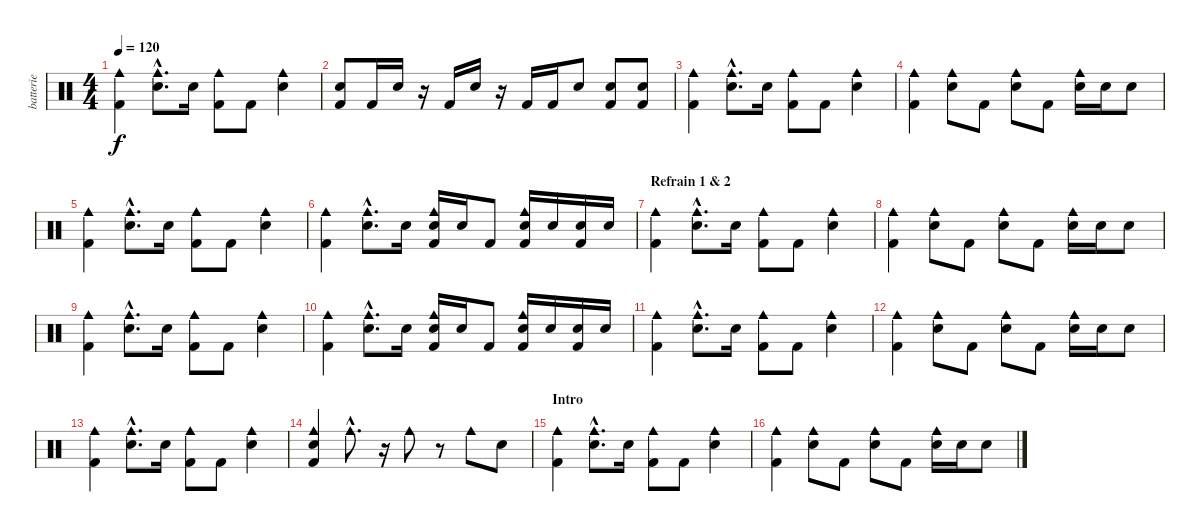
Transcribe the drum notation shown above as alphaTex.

\track ("batterie" "batterie") {instrument percussion}
\staff {score}
\articulation defaults
\ts (4 4)
\tempo 120
\clef neutral
\ks c
("Kick (hit) 2" "Cowbell medium (hit)").4{dy f} ("Electric Snare (hit)"{hac} "Cowbell medium (hit)"{hac}).8{d} "Electric Snare (hit)".16 ("Kick (hit) 2" "Cowbell medium (hit)").8 "Kick (hit) 2".8 ("Electric Snare (hit)" "Cowbell medium (hit)").4 |
("Kick (hit) 2" "Electric Snare (hit)").8 "Kick (hit) 2".16 "Electric Snare (hit)".16 r.16 "Kick (hit) 2".16 "Electric Snare (hit)".16 r.16 "Kick (hit) 2".16 "Kick (hit) 2".16 "Electric Snare (hit)".8 ("Kick (hit) 2" "Electric Snare (hit)").8 ("Kick (hit) 2" "Electric Snare (hit)").8 |
("Kick (hit) 2" "Cowbell medium (hit)").4 ("Electric Snare (hit)"{hac} "Cowbell medium (hit)"{hac}).8{d} "Electric Snare (hit)".16 ("Kick (hit) 2" "Cowbell medium (hit)").8 "Kick (hit) 2".8 ("Electric Snare (hit)" "Cowbell medium (hit)").4 |
("Kick (hit) 2" "Cowbell medium (hit)").4 ("Electric Snare (hit)" "Cowbell medium (hit)").8 "Kick (hit) 2".8 ("Electric Snare (hit)" "Cowbell medium (hit)").8 "Kick (hit) 2".8 ("Electric Snare (hit)" "Cowbell medium (hit)").16 "Electric Snare (hit)".16 "Electric Snare (hit)".8 |
("Kick (hit) 2" "Cowbell medium (hit)").4 ("Electric Snare (hit)"{hac} "Cowbell medium (hit)"{hac}).8{d} "Electric Snare (hit)".16 ("Kick (hit) 2" "Cowbell medium (hit)").8 "Kick (hit) 2".8 ("Electric Snare (hit)" "Cowbell medium (hit)").4 |
("Kick (hit) 2" "Cowbell medium (hit)").4 ("Electric Snare (hit)"{hac} "Cowbell medium (hit)"{hac}).8{d} "Electric Snare (hit)".16 ("Kick (hit) 2" "Electric Snare (hit)" "Cowbell medium (hit)").16 "Electric Snare (hit)".16 "Kick (hit) 2".8 ("Kick (hit) 2" "Electric Snare (hit)" "Cowbell medium (hit)").16 "Electric Snare (hit)".16 ("Kick (hit) 2" "Electric Snare (hit)").16 "Electric Snare (hit)".16 |
\section ("" "Refrain 1 & 2")
("Kick (hit) 2" "Cowbell medium (hit)").4 ("Electric Snare (hit)"{hac} "Cowbell medium (hit)"{hac}).8{d} "Electric Snare (hit)".16 ("Kick (hit) 2" "Cowbell medium (hit)").8 "Kick (hit) 2".8 ("Electric Snare (hit)" "Cowbell medium (hit)").4 |
("Kick (hit) 2" "Cowbell medium (hit)").4 ("Electric Snare (hit)" "Cowbell medium (hit)").8 "Kick (hit) 2".8 ("Electric Snare (hit)" "Cowbell medium (hit)").8 "Kick (hit) 2".8 ("Electric Snare (hit)" "Cowbell medium (hit)").16 "Electric Snare (hit)".16 "Electric Snare (hit)".8 |
("Kick (hit) 2" "Cowbell medium (hit)").4 ("Electric Snare (hit)"{hac} "Cowbell medium (hit)"{hac}).8{d} "Electric Snare (hit)".16 ("Kick (hit) 2" "Cowbell medium (hit)").8 "Kick (hit) 2".8 ("Electric Snare (hit)" "Cowbell medium (hit)").4 |
("Kick (hit) 2" "Cowbell medium (hit)").4 ("Electric Snare (hit)"{hac} "Cowbell medium (hit)"{hac}).8{d} "Electric Snare (hit)".16 ("Kick (hit) 2" "Electric Snare (hit)" "Cowbell medium (hit)").16 "Electric Snare (hit)".16 "Kick (hit) 2".8 ("Kick (hit) 2" "Electric Snare (hit)" "Cowbell medium (hit)").16 "Electric Snare (hit)".16 ("Kick (hit) 2" "Electric Snare (hit)").16 "Electric Snare (hit)".16 |
("Kick (hit) 2" "Cowbell medium (hit)").4 ("Electric Snare (hit)"{hac} "Cowbell medium (hit)"{hac}).8{d} "Electric Snare (hit)".16 ("Kick (hit) 2" "Cowbell medium (hit)").8 "Kick (hit) 2".8 ("Electric Snare (hit)" "Cowbell medium (hit)").4 |
("Kick (hit) 2" "Cowbell medium (hit)").4 ("Electric Snare (hit)" "Cowbell medium (hit)").8 "Kick (hit) 2".8 ("Electric Snare (hit)" "Cowbell medium (hit)").8 "Kick (hit) 2".8 ("Electric Snare (hit)" "Cowbell medium (hit)").16 "Electric Snare (hit)".16 "Electric Snare (hit)".8 |
("Kick (hit) 2" "Cowbell medium (hit)").4 ("Electric Snare (hit)"{hac} "Cowbell medium (hit)"{hac}).8{d} "Electric Snare (hit)".16 ("Kick (hit) 2" "Cowbell medium (hit)").8 "Kick (hit) 2".8 ("Electric Snare (hit)" "Cowbell medium (hit)").4 |
("Kick (hit) 2" "Electric Snare (hit)" "Cowbell medium (hit)").4 "Cowbell medium (hit)"{hac}.8{d} r.16 "Cowbell medium (hit)".8 r.8 "Cowbell medium (hit)".8 "Electric Snare (hit)".8 |
\section ("" "Intro")
("Kick (hit) 2" "Cowbell medium (hit)").4 ("Electric Snare (hit)"{hac} "Cowbell medium (hit)"{hac}).8{d} "Electric Snare (hit)".16 ("Kick (hit) 2" "Cowbell medium (hit)").8 "Kick (hit) 2".8 ("Electric Snare (hit)" "Cowbell medium (hit)").4 |
("Kick (hit) 2" "Cowbell medium (hit)").4 ("Electric Snare (hit)" "Cowbell medium (hit)").8 "Kick (hit) 2".8 ("Electric Snare (hit)" "Cowbell medium (hit)").8 "Kick (hit) 2".8 ("Electric Snare (hit)" "Cowbell medium (hit)").16 "Electric Snare (hit)".16 "Electric Snare (hit)".8
